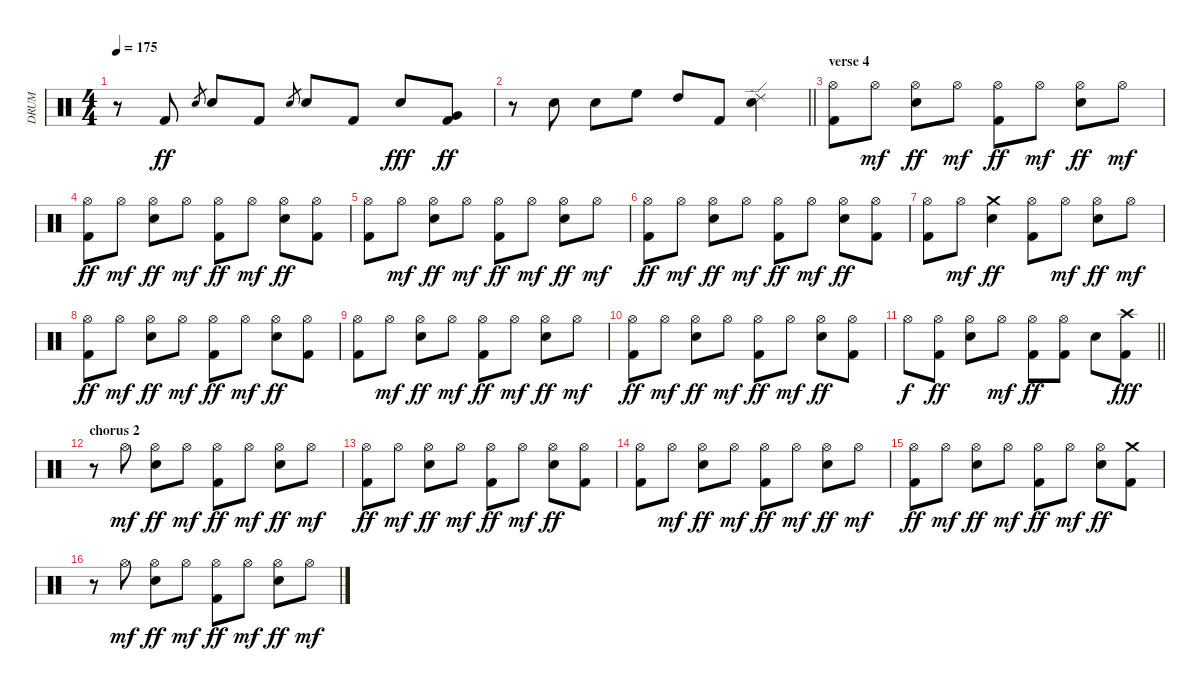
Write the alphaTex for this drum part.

\track ("DRUM" "DRUM") {instrument percussion}
\staff {score}
\articulation defaults
\ts (4 4)
\tempo 175
\clef neutral
\ks c
r.8{dy ff} "Kick (hit) 2".8 "Electric Snare (hit)".8{gr} "Snare (hit) 2".8 "Kick (hit) 2".8 "Electric Snare (hit)".8{gr} "Snare (hit) 2".8 "Kick (hit) 2".8 "Snare (hit) 2".8{dy fff} ("Very Low Tom (hit)" "Kick (hit) 2").8{dy ff} |
\barLineRight lightlight
r.8 "Electric Snare (hit)".8 "Snare (hit) 2".8 "High Floor Tom (hit)".8 "High Tom (hit)".8 "Kick (hit) 2".8 ("Ride (edge) 2" "Snare (hit) 2").4 |
\section ("" "verse 4")
("Hi-Hat (open)" "Kick (hit) 2").8 "Hi-Hat (open)".8{dy mf} ("Hi-Hat (open)" "Snare (hit) 2").8{dy ff} "Hi-Hat (open)".8{dy mf} ("Hi-Hat (open)" "Kick (hit) 2").8{dy ff} "Hi-Hat (open)".8{dy mf} ("Hi-Hat (open)" "Snare (hit) 2").8{dy ff} "Hi-Hat (open)".8{dy mf} |
("Hi-Hat (open)" "Kick (hit) 2").8{dy ff} "Hi-Hat (open)".8{dy mf} ("Hi-Hat (open)" "Snare (hit) 2").8{dy ff} "Hi-Hat (open)".8{dy mf} ("Hi-Hat (open)" "Kick (hit) 2").8{dy ff} "Hi-Hat (open)".8{dy mf} ("Hi-Hat (open)" "Snare (hit) 2").8{dy ff} ("Hi-Hat (open)" "Kick (hit) 2").8 |
("Hi-Hat (open)" "Kick (hit) 2").8 "Hi-Hat (open)".8{dy mf} ("Hi-Hat (open)" "Snare (hit) 2").8{dy ff} "Hi-Hat (open)".8{dy mf} ("Hi-Hat (open)" "Kick (hit) 2").8{dy ff} "Hi-Hat (open)".8{dy mf} ("Hi-Hat (open)" "Snare (hit) 2").8{dy ff} "Hi-Hat (open)".8{dy mf} |
("Hi-Hat (open)" "Kick (hit) 2").8{dy ff} "Hi-Hat (open)".8{dy mf} ("Hi-Hat (open)" "Snare (hit) 2").8{dy ff} "Hi-Hat (open)".8{dy mf} ("Hi-Hat (open)" "Kick (hit) 2").8{dy ff} "Hi-Hat (open)".8{dy mf} ("Hi-Hat (open)" "Snare (hit) 2").8{dy ff} ("Hi-Hat (open)" "Kick (hit) 2").8 |
("Hi-Hat (open)" "Kick (hit) 2").8 "Hi-Hat (open)".8{dy mf} ("Crash medium (hit)" "Snare (hit) 2").4{dy ff} ("Hi-Hat (open)" "Kick (hit) 2").8 "Hi-Hat (open)".8{dy mf} ("Hi-Hat (open)" "Snare (hit) 2").8{dy ff} "Hi-Hat (open)".8{dy mf} |
("Hi-Hat (open)" "Kick (hit) 2").8{dy ff} "Hi-Hat (open)".8{dy mf} ("Hi-Hat (open)" "Snare (hit) 2").8{dy ff} "Hi-Hat (open)".8{dy mf} ("Hi-Hat (open)" "Kick (hit) 2").8{dy ff} "Hi-Hat (open)".8{dy mf} ("Hi-Hat (open)" "Snare (hit) 2").8{dy ff} ("Hi-Hat (open)" "Kick (hit) 2").8 |
("Hi-Hat (open)" "Kick (hit) 2").8 "Hi-Hat (open)".8{dy mf} ("Hi-Hat (open)" "Snare (hit) 2").8{dy ff} "Hi-Hat (open)".8{dy mf} ("Hi-Hat (open)" "Kick (hit) 2").8{dy ff} "Hi-Hat (open)".8{dy mf} ("Hi-Hat (open)" "Snare (hit) 2").8{dy ff} "Hi-Hat (open)".8{dy mf} |
("Hi-Hat (open)" "Kick (hit) 2").8{dy ff} "Hi-Hat (open)".8{dy mf} ("Hi-Hat (open)" "Snare (hit) 2").8{dy ff} "Hi-Hat (open)".8{dy mf} ("Hi-Hat (open)" "Kick (hit) 2").8{dy ff} "Hi-Hat (open)".8{dy mf} ("Hi-Hat (open)" "Snare (hit) 2").8{dy ff} ("Hi-Hat (open)" "Kick (hit) 2").8 |
\barLineRight lightlight "Hi-Hat (open)".8{dy f}
("Hi-Hat (open)" "Kick (hit) 2").8{dy ff} ("Hi-Hat (open)" "Snare (hit) 2").8 "Hi-Hat (open)".8{dy mf} ("Hi-Hat (open)" "Kick (hit) 2").8{dy ff} ("Hi-Hat (open)" "Kick (hit) 2").8 "Snare (hit) 2".8 ("Crash high (hit)" "Kick (hit) 2").8{dy fff} |
\section ("" "chorus 2")
r.8 "Hi-Hat (open)".8{dy mf} ("Hi-Hat (open)" "Snare (hit) 2").8{dy ff} "Hi-Hat (open)".8{dy mf} ("Hi-Hat (open)" "Kick (hit) 2").8{dy ff} "Hi-Hat (open)".8{dy mf} ("Hi-Hat (open)" "Snare (hit) 2").8{dy ff} "Hi-Hat (open)".8{dy mf} |
("Hi-Hat (open)" "Kick (hit) 2").8{dy ff} "Hi-Hat (open)".8{dy mf} ("Hi-Hat (open)" "Snare (hit) 2").8{dy ff} "Hi-Hat (open)".8{dy mf} ("Hi-Hat (open)" "Kick (hit) 2").8{dy ff} "Hi-Hat (open)".8{dy mf} ("Hi-Hat (open)" "Snare (hit) 2").8{dy ff} ("Hi-Hat (open)" "Kick (hit) 2").8 |
("Hi-Hat (open)" "Kick (hit) 2").8 "Hi-Hat (open)".8{dy mf} ("Hi-Hat (open)" "Snare (hit) 2").8{dy ff} "Hi-Hat (open)".8{dy mf} ("Hi-Hat (open)" "Kick (hit) 2").8{dy ff} "Hi-Hat (open)".8{dy mf} ("Hi-Hat (open)" "Snare (hit) 2").8{dy ff} "Hi-Hat (open)".8{dy mf} |
("Hi-Hat (open)" "Kick (hit) 2").8{dy ff} "Hi-Hat (open)".8{dy mf} ("Hi-Hat (open)" "Snare (hit) 2").8{dy ff} "Hi-Hat (open)".8{dy mf} ("Hi-Hat (open)" "Kick (hit) 2").8{dy ff} "Hi-Hat (open)".8{dy mf} ("Hi-Hat (open)" "Snare (hit) 2").8{dy ff} ("Crash medium (hit)" "Kick (hit) 2").8 |
r.8 "Hi-Hat (open)".8{dy mf} ("Hi-Hat (open)" "Snare (hit) 2").8{dy ff} "Hi-Hat (open)".8{dy mf} ("Hi-Hat (open)" "Kick (hit) 2").8{dy ff} "Hi-Hat (open)".8{dy mf} ("Hi-Hat (open)" "Snare (hit) 2").8{dy ff} "Hi-Hat (open)".8{dy mf}
